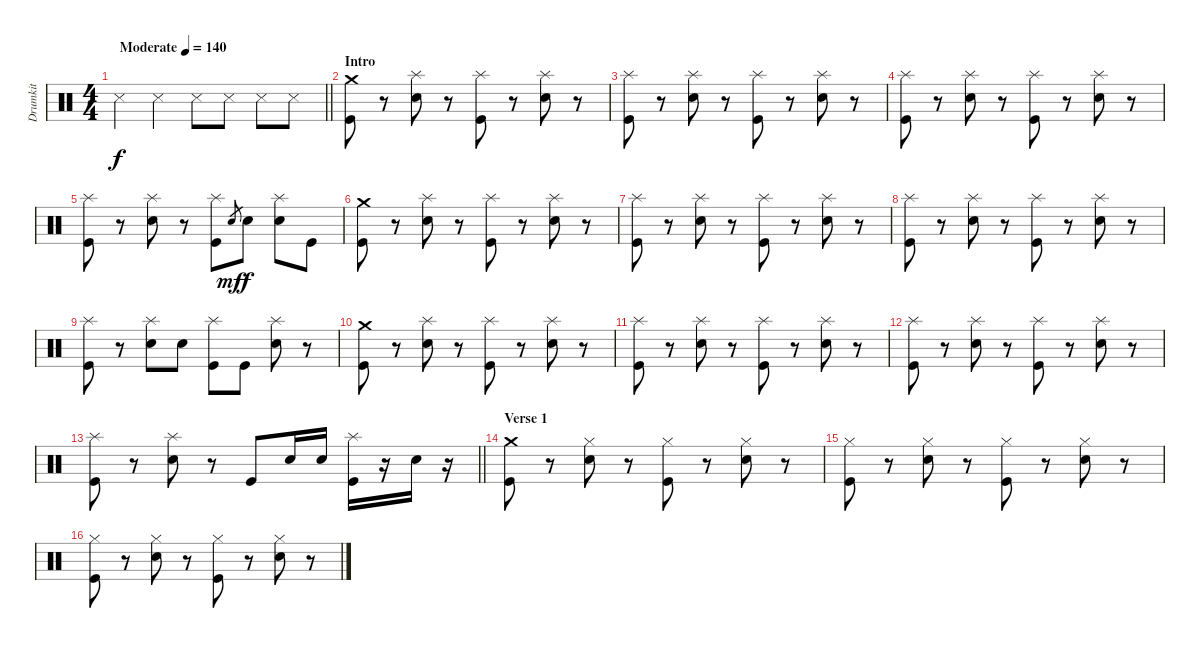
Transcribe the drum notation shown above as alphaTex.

\track ("Drumkit" "Drumkit") {instrument percussion}
\staff {score}
\articulation defaults
\ts (4 4)
\tempo (140 "Moderate")
\clef neutral
\barLineRight lightlight
\ks c "Snare (side stick) 3".4{dy f} "Snare (side stick) 3".4 "Snare (side stick) 3".8 "Snare (side stick) 3".8 "Snare (side stick) 3".8 "Snare (side stick) 3".8
|
\section ("" "Intro")
("Crash medium (hit)" "Kick (hit)").8 r.8 ("Splash (hit)" "Snare (hit) 2").8 r.8 ("Splash (hit)" "Kick (hit)").8 r.8 ("Splash (hit)" "Snare (hit) 2").8 r.8 |
("Splash (hit)" "Kick (hit)").8 r.8 ("Splash (hit)" "Snare (hit) 2").8 r.8 ("Splash (hit)" "Kick (hit)").8 r.8 ("Splash (hit)" "Snare (hit) 2").8 r.8 |
("Splash (hit)" "Kick (hit)").8 r.8 ("Splash (hit)" "Snare (hit) 2").8 r.8 ("Splash (hit)" "Kick (hit)").8 r.8 ("Splash (hit)" "Snare (hit) 2").8 r.8 |
("Splash (hit)" "Kick (hit)").8 r.8 ("Splash (hit)" "Snare (hit) 2").8 r.8 ("Splash (hit)" "Kick (hit)").8 "Snare (hit)".8{gr dy mf} "Snare (hit) 2".8{dy f} ("Splash (hit)" "Snare (hit) 2").8 "Kick (hit)".8 |
("Crash medium (hit)" "Kick (hit)").8 r.8 ("Splash (hit)" "Snare (hit) 2").8 r.8 ("Splash (hit)" "Kick (hit)").8 r.8 ("Splash (hit)" "Snare (hit) 2").8 r.8 |
("Splash (hit)" "Kick (hit)").8 r.8 ("Splash (hit)" "Snare (hit) 2").8 r.8 ("Splash (hit)" "Kick (hit)").8 r.8 ("Splash (hit)" "Snare (hit) 2").8 r.8 |
("Splash (hit)" "Kick (hit)").8 r.8 ("Splash (hit)" "Snare (hit) 2").8 r.8 ("Splash (hit)" "Kick (hit)").8 r.8 ("Splash (hit)" "Snare (hit) 2").8 r.8 |
("Splash (hit)" "Kick (hit)").8 r.8 ("Splash (hit)" "Snare (hit) 2").8 "Snare (hit) 2".8 ("Splash (hit)" "Kick (hit)").8 "Kick (hit)".8 ("Splash (hit)" "Snare (hit) 2").8 r.8 |
("Crash medium (hit)" "Kick (hit)").8 r.8 ("Splash (hit)" "Snare (hit) 2").8 r.8 ("Splash (hit)" "Kick (hit)").8 r.8 ("Splash (hit)" "Snare (hit) 2").8 r.8 |
("Splash (hit)" "Kick (hit)").8 r.8 ("Splash (hit)" "Snare (hit) 2").8 r.8 ("Splash (hit)" "Kick (hit)").8 r.8 ("Splash (hit)" "Snare (hit) 2").8 r.8 |
("Splash (hit)" "Kick (hit)").8 r.8 ("Splash (hit)" "Snare (hit) 2").8 r.8 ("Splash (hit)" "Kick (hit)").8 r.8 ("Splash (hit)" "Snare (hit) 2").8 r.8 |
\barLineRight lightlight
("Splash (hit)" "Kick (hit)").8 r.8 ("Splash (hit)" "Snare (hit) 2").8 r.8 "Kick (hit)".8 "Snare (hit) 2".16 "Snare (hit) 2".16 ("Splash (hit)" "Kick (hit)").16 r.16 "Snare (hit) 2".16 r.16 |
\section ("" "Verse 1")
("Crash medium (hit)" "Kick (hit)").8 r.8 ("Hi-Hat (closed)" "Snare (hit) 2").8 r.8 ("Hi-Hat (closed)" "Kick (hit)").8 r.8 ("Hi-Hat (closed)" "Snare (hit) 2").8 r.8 |
("Hi-Hat (closed)" "Kick (hit)").8 r.8 ("Hi-Hat (closed)" "Snare (hit) 2").8 r.8 ("Hi-Hat (closed)" "Kick (hit)").8 r.8 ("Hi-Hat (closed)" "Snare (hit) 2").8 r.8 |
("Hi-Hat (closed)" "Kick (hit)").8 r.8 ("Hi-Hat (closed)" "Snare (hit) 2").8 r.8 ("Hi-Hat (closed)" "Kick (hit)").8 r.8 ("Hi-Hat (closed)" "Snare (hit) 2").8 r.8
